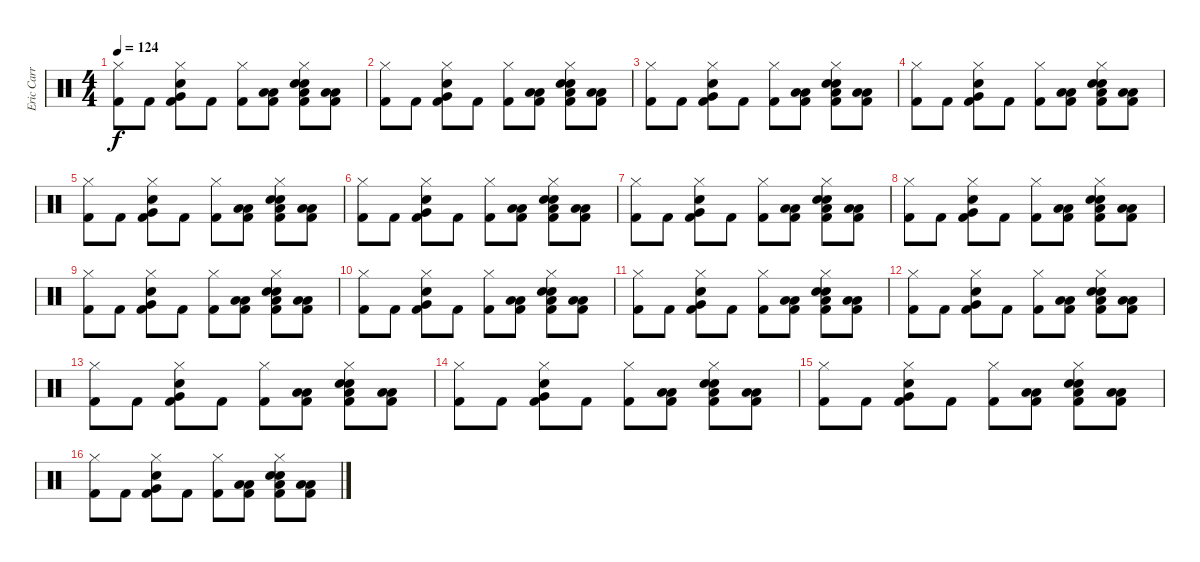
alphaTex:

\track ("Eric Carr" "Eric Carr") {instrument percussion}
\staff {score}
\articulation defaults
\ts (4 4)
\tempo 124
\clef neutral
\ks c
("Hi-Hat (closed)" "Kick (hit) 2").8{dy f} "Kick (hit) 2".8 ("Hi-Hat (closed)" "Very Low Tom (hit)" "Snare (hit) 2" "Kick (hit) 2").8 "Kick (hit) 2".8 ("Hi-Hat (closed)" "Kick (hit) 2").8 ("Low Tom (hit)" "Low Tom (hit)" "Kick (hit) 2").8 ("Hi-Hat (closed)" "Snare (hit) 2" "Low Floor Tom (hit)" "Snare (hit) 2" "Kick (hit) 2").8 ("Low Tom (hit)" "Low Tom (hit)" "Kick (hit) 2").8 |
("Hi-Hat (closed)" "Kick (hit) 2").8 "Kick (hit) 2".8 ("Hi-Hat (closed)" "Very Low Tom (hit)" "Snare (hit) 2" "Kick (hit) 2").8 "Kick (hit) 2".8 ("Hi-Hat (closed)" "Kick (hit) 2").8 ("Low Tom (hit)" "Low Tom (hit)" "Kick (hit) 2").8 ("Hi-Hat (closed)" "Snare (hit) 2" "Low Floor Tom (hit)" "Snare (hit) 2" "Kick (hit) 2").8 ("Low Tom (hit)" "Low Tom (hit)" "Kick (hit) 2").8 |
("Hi-Hat (closed)" "Kick (hit) 2").8 "Kick (hit) 2".8 ("Hi-Hat (closed)" "Very Low Tom (hit)" "Snare (hit) 2" "Kick (hit) 2").8 "Kick (hit) 2".8 ("Hi-Hat (closed)" "Kick (hit) 2").8 ("Low Tom (hit)" "Low Tom (hit)" "Kick (hit) 2").8 ("Hi-Hat (closed)" "Snare (hit) 2" "Low Floor Tom (hit)" "Snare (hit) 2" "Kick (hit) 2").8 ("Low Tom (hit)" "Low Tom (hit)" "Kick (hit) 2").8 |
("Hi-Hat (closed)" "Kick (hit) 2").8 "Kick (hit) 2".8 ("Hi-Hat (closed)" "Very Low Tom (hit)" "Snare (hit) 2" "Kick (hit) 2").8 "Kick (hit) 2".8 ("Hi-Hat (closed)" "Kick (hit) 2").8 ("Low Tom (hit)" "Low Tom (hit)" "Kick (hit) 2").8 ("Hi-Hat (closed)" "Snare (hit) 2" "Low Floor Tom (hit)" "Snare (hit) 2" "Kick (hit) 2").8 ("Low Tom (hit)" "Low Tom (hit)" "Kick (hit) 2").8 |
("Hi-Hat (closed)" "Kick (hit) 2").8 "Kick (hit) 2".8 ("Hi-Hat (closed)" "Very Low Tom (hit)" "Snare (hit) 2" "Kick (hit) 2").8 "Kick (hit) 2".8 ("Hi-Hat (closed)" "Kick (hit) 2").8 ("Low Tom (hit)" "Low Tom (hit)" "Kick (hit) 2").8 ("Hi-Hat (closed)" "Snare (hit) 2" "Low Floor Tom (hit)" "Snare (hit) 2" "Kick (hit) 2").8 ("Low Tom (hit)" "Low Tom (hit)" "Kick (hit) 2").8 |
("Hi-Hat (closed)" "Kick (hit) 2").8 "Kick (hit) 2".8 ("Hi-Hat (closed)" "Very Low Tom (hit)" "Snare (hit) 2" "Kick (hit) 2").8 "Kick (hit) 2".8 ("Hi-Hat (closed)" "Kick (hit) 2").8 ("Low Tom (hit)" "Low Tom (hit)" "Kick (hit) 2").8 ("Hi-Hat (closed)" "Snare (hit) 2" "Low Floor Tom (hit)" "Snare (hit) 2" "Kick (hit) 2").8 ("Low Tom (hit)" "Low Tom (hit)" "Kick (hit) 2").8 |
("Hi-Hat (closed)" "Kick (hit) 2").8 "Kick (hit) 2".8 ("Hi-Hat (closed)" "Very Low Tom (hit)" "Snare (hit) 2" "Kick (hit) 2").8 "Kick (hit) 2".8 ("Hi-Hat (closed)" "Kick (hit) 2").8 ("Low Tom (hit)" "Low Tom (hit)" "Kick (hit) 2").8 ("Hi-Hat (closed)" "Snare (hit) 2" "Low Floor Tom (hit)" "Snare (hit) 2" "Kick (hit) 2").8 ("Low Tom (hit)" "Low Tom (hit)" "Kick (hit) 2").8 |
("Hi-Hat (closed)" "Kick (hit) 2").8 "Kick (hit) 2".8 ("Hi-Hat (closed)" "Very Low Tom (hit)" "Snare (hit) 2" "Kick (hit) 2").8 "Kick (hit) 2".8 ("Hi-Hat (closed)" "Kick (hit) 2").8 ("Low Tom (hit)" "Low Tom (hit)" "Kick (hit) 2").8 ("Hi-Hat (closed)" "Snare (hit) 2" "Low Floor Tom (hit)" "Snare (hit) 2" "Kick (hit) 2").8 ("Low Tom (hit)" "Low Tom (hit)" "Kick (hit) 2").8 |
("Hi-Hat (closed)" "Kick (hit) 2").8 "Kick (hit) 2".8 ("Hi-Hat (closed)" "Very Low Tom (hit)" "Snare (hit) 2" "Kick (hit) 2").8 "Kick (hit) 2".8 ("Hi-Hat (closed)" "Kick (hit) 2").8 ("Low Tom (hit)" "Low Tom (hit)" "Kick (hit) 2").8 ("Hi-Hat (closed)" "Snare (hit) 2" "Low Floor Tom (hit)" "Snare (hit) 2" "Kick (hit) 2").8 ("Low Tom (hit)" "Low Tom (hit)" "Kick (hit) 2").8 |
("Hi-Hat (closed)" "Kick (hit) 2").8 "Kick (hit) 2".8 ("Hi-Hat (closed)" "Very Low Tom (hit)" "Snare (hit) 2" "Kick (hit) 2").8 "Kick (hit) 2".8 ("Hi-Hat (closed)" "Kick (hit) 2").8 ("Low Tom (hit)" "Low Tom (hit)" "Kick (hit) 2").8 ("Hi-Hat (closed)" "Snare (hit) 2" "Low Floor Tom (hit)" "Snare (hit) 2" "Kick (hit) 2").8 ("Low Tom (hit)" "Low Tom (hit)" "Kick (hit) 2").8 |
("Hi-Hat (closed)" "Kick (hit) 2").8 "Kick (hit) 2".8 ("Hi-Hat (closed)" "Very Low Tom (hit)" "Snare (hit) 2" "Kick (hit) 2").8 "Kick (hit) 2".8 ("Hi-Hat (closed)" "Kick (hit) 2").8 ("Low Tom (hit)" "Low Tom (hit)" "Kick (hit) 2").8 ("Hi-Hat (closed)" "Snare (hit) 2" "Low Floor Tom (hit)" "Snare (hit) 2" "Kick (hit) 2").8 ("Low Tom (hit)" "Low Tom (hit)" "Kick (hit) 2").8 |
("Hi-Hat (closed)" "Kick (hit) 2").8 "Kick (hit) 2".8 ("Hi-Hat (closed)" "Very Low Tom (hit)" "Snare (hit) 2" "Kick (hit) 2").8 "Kick (hit) 2".8 ("Hi-Hat (closed)" "Kick (hit) 2").8 ("Low Tom (hit)" "Low Tom (hit)" "Kick (hit) 2").8 ("Hi-Hat (closed)" "Snare (hit) 2" "Low Floor Tom (hit)" "Snare (hit) 2" "Kick (hit) 2").8 ("Low Tom (hit)" "Low Tom (hit)" "Kick (hit) 2").8 |
("Hi-Hat (closed)" "Kick (hit) 2").8 "Kick (hit) 2".8 ("Hi-Hat (closed)" "Very Low Tom (hit)" "Snare (hit) 2" "Kick (hit) 2").8 "Kick (hit) 2".8 ("Hi-Hat (closed)" "Kick (hit) 2").8 ("Low Tom (hit)" "Low Tom (hit)" "Kick (hit) 2").8 ("Hi-Hat (closed)" "Snare (hit) 2" "Low Floor Tom (hit)" "Snare (hit) 2" "Kick (hit) 2").8 ("Low Tom (hit)" "Low Tom (hit)" "Kick (hit) 2").8 |
("Hi-Hat (closed)" "Kick (hit) 2").8 "Kick (hit) 2".8 ("Hi-Hat (closed)" "Very Low Tom (hit)" "Snare (hit) 2" "Kick (hit) 2").8 "Kick (hit) 2".8 ("Hi-Hat (closed)" "Kick (hit) 2").8 ("Low Tom (hit)" "Low Tom (hit)" "Kick (hit) 2").8 ("Hi-Hat (closed)" "Snare (hit) 2" "Low Floor Tom (hit)" "Snare (hit) 2" "Kick (hit) 2").8 ("Low Tom (hit)" "Low Tom (hit)" "Kick (hit) 2").8 |
("Hi-Hat (closed)" "Kick (hit) 2").8 "Kick (hit) 2".8 ("Hi-Hat (closed)" "Very Low Tom (hit)" "Snare (hit) 2" "Kick (hit) 2").8 "Kick (hit) 2".8 ("Hi-Hat (closed)" "Kick (hit) 2").8 ("Low Tom (hit)" "Low Tom (hit)" "Kick (hit) 2").8 ("Hi-Hat (closed)" "Snare (hit) 2" "Low Floor Tom (hit)" "Snare (hit) 2" "Kick (hit) 2").8 ("Low Tom (hit)" "Low Tom (hit)" "Kick (hit) 2").8 |
("Hi-Hat (closed)" "Kick (hit) 2").8 "Kick (hit) 2".8 ("Hi-Hat (closed)" "Very Low Tom (hit)" "Snare (hit) 2" "Kick (hit) 2").8 "Kick (hit) 2".8 ("Hi-Hat (closed)" "Kick (hit) 2").8 ("Low Tom (hit)" "Low Tom (hit)" "Kick (hit) 2").8 ("Hi-Hat (closed)" "Snare (hit) 2" "Low Floor Tom (hit)" "Snare (hit) 2" "Kick (hit) 2").8 ("Low Tom (hit)" "Low Tom (hit)" "Kick (hit) 2").8
